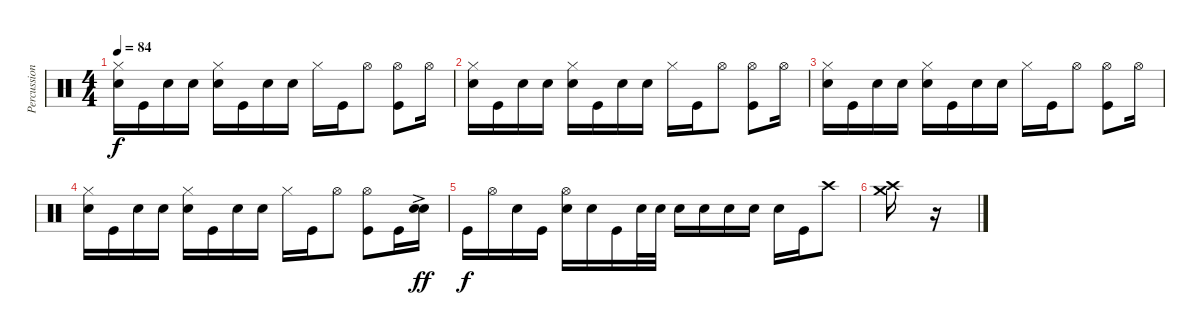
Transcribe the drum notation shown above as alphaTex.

\track ("Percussion" "Percussion") {instrument percussion}
\staff {score}
\articulation defaults
\ts (4 4)
\tempo 84
\clef neutral
\ks c
("Hi-Hat (closed)" "Snare (hit) 2").16{dy f} "Kick (hit)".16 "Snare (hit) 2".16 "Snare (hit) 2".16 ("Hi-Hat (closed)" "Snare (hit) 2").16 "Kick (hit)".16 "Snare (hit) 2".16 "Snare (hit) 2".16 "Hi-Hat (closed)".16 "Kick (hit)".16 "Hi-Hat (open)".8 ("Hi-Hat (open)" "Kick (hit)").8 "Hi-Hat (open)".16 |
("Hi-Hat (closed)" "Snare (hit) 2").16 "Kick (hit)".16 "Snare (hit) 2".16 "Snare (hit) 2".16 ("Hi-Hat (closed)" "Snare (hit) 2").16 "Kick (hit)".16 "Snare (hit) 2".16 "Snare (hit) 2".16 "Hi-Hat (closed)".16 "Kick (hit)".16 "Hi-Hat (open)".8 ("Hi-Hat (open)" "Kick (hit)").8 "Hi-Hat (open)".16 |
("Hi-Hat (closed)" "Snare (hit) 2").16 "Kick (hit)".16 "Snare (hit) 2".16 "Snare (hit) 2".16 ("Hi-Hat (closed)" "Snare (hit) 2").16 "Kick (hit)".16 "Snare (hit) 2".16 "Snare (hit) 2".16 "Hi-Hat (closed)".16 "Kick (hit)".16 "Hi-Hat (open)".8 ("Hi-Hat (open)" "Kick (hit)").8 "Hi-Hat (open)".16 |
("Hi-Hat (closed)" "Snare (hit) 2").16 "Kick (hit)".16 "Snare (hit) 2".16 "Snare (hit) 2".16 ("Hi-Hat (closed)" "Snare (hit) 2").16 "Kick (hit)".16 "Snare (hit) 2".16 "Snare (hit) 2".16 "Hi-Hat (closed)".16 "Kick (hit)".16 "Hi-Hat (open)".8 ("Hi-Hat (open)" "Kick (hit)").8 "Kick (hit)".16 ("Snare (hit) 2"{ac} "Snare (hit) 2").16{dy ff} |
"Kick (hit)".16{dy f} "Hi-Hat (open)".16 "Snare (hit) 2".16 "Kick (hit)".16 ("Hi-Hat (open)" "Snare (hit) 2").16 "Snare (hit) 2".16 "Kick (hit)".16 "Snare (hit) 2".32 "Snare (hit) 2".32 "Snare (hit) 2".16 "Snare (hit) 2".16 "Snare (hit) 2".16 "Snare (hit) 2".16 "Snare (hit) 2".16 "Kick (hit)".16 "Crash high (hit)".8 |
("Crash high (hit)" "Crash medium (hit)").16 r.16
